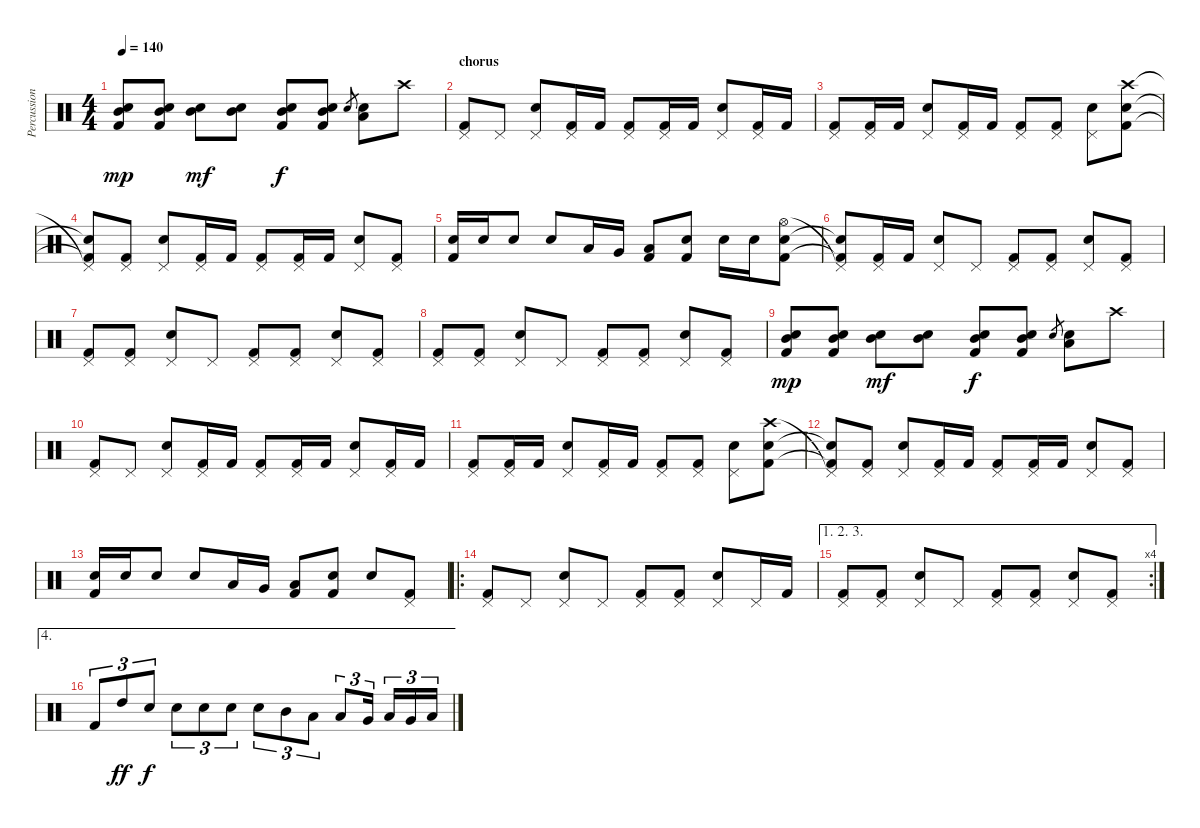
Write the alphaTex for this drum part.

\track ("Percussions" "Percussion") {instrument percussion}
\staff {score}
\articulation defaults
\ts (4 4)
\tempo 140
\clef neutral
\ks c
("Mid Tom (hit)" "Snare (hit) 2" "Kick (hit) 2").8{dy mp} ("Mid Tom (hit)" "Snare (hit) 2" "Kick (hit) 2").8 ("Mid Tom (hit)" "Snare (hit) 2").8{dy mf} ("Mid Tom (hit)" "Snare (hit) 2").8 ("Mid Tom (hit)" "Snare (hit) 2" "Kick (hit) 2").8{dy f} ("Mid Tom (hit)" "Snare (hit) 2" "Kick (hit) 2").8 "Snare (hit) 2".8{gr} ("Low Tom (hit)" "Electric Snare (hit)").8 "Crash high (hit)".8 |
\section ("" "chorus")
("Pedal Hi-Hat (hit)" "Kick (hit) 2").8 "Pedal Hi-Hat (hit)".8 ("Pedal Hi-Hat (hit)" "Snare (hit) 2").8 ("Pedal Hi-Hat (hit)" "Kick (hit) 2").16 "Kick (hit) 2".16 ("Pedal Hi-Hat (hit)" "Kick (hit) 2").8 ("Pedal Hi-Hat (hit)" "Kick (hit) 2").16 "Kick (hit) 2".16 ("Pedal Hi-Hat (hit)" "Snare (hit) 2").8 ("Pedal Hi-Hat (hit)" "Kick (hit) 2").16 "Kick (hit) 2".16 |
("Pedal Hi-Hat (hit)" "Kick (hit) 2").8 ("Pedal Hi-Hat (hit)" "Kick (hit) 2").16 "Kick (hit) 2".16 ("Pedal Hi-Hat (hit)" "Snare (hit) 2").8 ("Pedal Hi-Hat (hit)" "Kick (hit) 2").16 "Kick (hit) 2".16 ("Pedal Hi-Hat (hit)" "Kick (hit) 2").8 ("Pedal Hi-Hat (hit)" "Kick (hit) 2").8 ("Pedal Hi-Hat (hit)" "Snare (hit) 2").8 ("Crash high (hit)" "Snare (hit) 2" "Kick (hit) 2").8 |
("Pedal Hi-Hat (hit)"{t} "Snare (hit)"{t} "Kick (hit) 2"{t}).8 ("Pedal Hi-Hat (hit)" "Kick (hit) 2").8 ("Pedal Hi-Hat (hit)" "Snare (hit) 2").8 ("Pedal Hi-Hat (hit)" "Kick (hit) 2").16 "Kick (hit) 2".16 ("Pedal Hi-Hat (hit)" "Kick (hit) 2").8 ("Pedal Hi-Hat (hit)" "Kick (hit) 2").16 "Kick (hit) 2".16 ("Pedal Hi-Hat (hit)" "Snare (hit) 2").8 ("Pedal Hi-Hat (hit)" "Kick (hit) 2").8 |
("Electric Snare (hit)" "Kick (hit) 2").16 "Snare (hit) 2".16 "Electric Snare (hit)".8 "Electric Snare (hit)".8 "Low Tom (hit)".16 "Very Low Tom (hit)".16 ("Low Floor Tom (hit)" "Kick (hit) 2").8 ("Electric Snare (hit)" "Kick (hit) 2").8 "Snare (hit) 2".16 "Snare (hit) 2".16 ("Hi-Hat (open)" "Electric Snare (hit)" "Kick (hit) 2").8 |
("Pedal Hi-Hat (hit)"{t} "Snare (hit)"{t} "Kick (hit) 2"{t}).8 ("Pedal Hi-Hat (hit)" "Kick (hit) 2").16 "Kick (hit) 2".16 ("Pedal Hi-Hat (hit)" "Snare (hit) 2").8 "Pedal Hi-Hat (hit)".8 ("Pedal Hi-Hat (hit)" "Kick (hit) 2").8 ("Pedal Hi-Hat (hit)" "Kick (hit) 2").8 ("Pedal Hi-Hat (hit)" "Snare (hit) 2").8 ("Pedal Hi-Hat (hit)" "Kick (hit) 2").8 |
("Pedal Hi-Hat (hit)" "Kick (hit) 2").8 ("Pedal Hi-Hat (hit)" "Kick (hit) 2").8 ("Pedal Hi-Hat (hit)" "Snare (hit) 2").8 "Pedal Hi-Hat (hit)".8 ("Pedal Hi-Hat (hit)" "Kick (hit) 2").8 ("Pedal Hi-Hat (hit)" "Kick (hit) 2").8 ("Pedal Hi-Hat (hit)" "Snare (hit) 2").8 ("Pedal Hi-Hat (hit)" "Kick (hit) 2").8 |
("Pedal Hi-Hat (hit)" "Kick (hit) 2").8 ("Pedal Hi-Hat (hit)" "Kick (hit) 2").8 ("Pedal Hi-Hat (hit)" "Snare (hit) 2").8 "Pedal Hi-Hat (hit)".8 ("Pedal Hi-Hat (hit)" "Kick (hit) 2").8 ("Pedal Hi-Hat (hit)" "Kick (hit) 2").8 ("Pedal Hi-Hat (hit)" "Snare (hit) 2").8 ("Pedal Hi-Hat (hit)" "Kick (hit) 2").8 |
("Mid Tom (hit)" "Snare (hit) 2" "Kick (hit) 2").8{dy mp} ("Mid Tom (hit)" "Snare (hit) 2" "Kick (hit) 2").8 ("Mid Tom (hit)" "Snare (hit) 2").8{dy mf} ("Mid Tom (hit)" "Snare (hit) 2").8 ("Mid Tom (hit)" "Snare (hit) 2" "Kick (hit) 2").8{dy f} ("Mid Tom (hit)" "Snare (hit) 2" "Kick (hit) 2").8 "Snare (hit) 2".8{gr} ("Low Tom (hit)" "Electric Snare (hit)").8 "Crash high (hit)".8 |
("Pedal Hi-Hat (hit)" "Kick (hit) 2").8 "Pedal Hi-Hat (hit)".8 ("Pedal Hi-Hat (hit)" "Snare (hit) 2").8 ("Pedal Hi-Hat (hit)" "Kick (hit) 2").16 "Kick (hit) 2".16 ("Pedal Hi-Hat (hit)" "Kick (hit) 2").8 ("Pedal Hi-Hat (hit)" "Kick (hit) 2").16 "Kick (hit) 2".16 ("Pedal Hi-Hat (hit)" "Snare (hit) 2").8 ("Pedal Hi-Hat (hit)" "Kick (hit) 2").16 "Kick (hit) 2".16 |
("Pedal Hi-Hat (hit)" "Kick (hit) 2").8 ("Pedal Hi-Hat (hit)" "Kick (hit) 2").16 "Kick (hit) 2".16 ("Pedal Hi-Hat (hit)" "Snare (hit) 2").8 ("Pedal Hi-Hat (hit)" "Kick (hit) 2").16 "Kick (hit) 2".16 ("Pedal Hi-Hat (hit)" "Kick (hit) 2").8 ("Pedal Hi-Hat (hit)" "Kick (hit) 2").8 ("Pedal Hi-Hat (hit)" "Snare (hit) 2").8 ("Crash high (hit)" "Snare (hit) 2" "Kick (hit) 2").8 |
("Pedal Hi-Hat (hit)"{t} "Snare (hit)"{t} "Kick (hit) 2"{t}).8 ("Pedal Hi-Hat (hit)" "Kick (hit) 2").8 ("Pedal Hi-Hat (hit)" "Snare (hit) 2").8 ("Pedal Hi-Hat (hit)" "Kick (hit) 2").16 "Kick (hit) 2".16 ("Pedal Hi-Hat (hit)" "Kick (hit) 2").8 ("Pedal Hi-Hat (hit)" "Kick (hit) 2").16 "Kick (hit) 2".16 ("Pedal Hi-Hat (hit)" "Snare (hit) 2").8 ("Pedal Hi-Hat (hit)" "Kick (hit) 2").8 |
("Electric Snare (hit)" "Kick (hit) 2").16 "Snare (hit) 2".16 "Electric Snare (hit)".8 "Electric Snare (hit)".8 "Low Tom (hit)".16 "Very Low Tom (hit)".16 ("Low Floor Tom (hit)" "Kick (hit) 2").8 ("Electric Snare (hit)" "Kick (hit) 2").8 "Snare (hit) 2".8 ("Pedal Hi-Hat (hit)" "Kick (hit) 2").8 |
\ro
("Pedal Hi-Hat (hit)" "Kick (hit) 2").8 "Pedal Hi-Hat (hit)".8 ("Pedal Hi-Hat (hit)" "Snare (hit) 2").8 "Pedal Hi-Hat (hit)".8 ("Pedal Hi-Hat (hit)" "Kick (hit) 2").8 ("Pedal Hi-Hat (hit)" "Kick (hit) 2").8 ("Pedal Hi-Hat (hit)" "Snare (hit) 2").8 "Pedal Hi-Hat (hit)".16 "Kick (hit) 2".16 |
\ae (1 2 3)
\rc 4
("Pedal Hi-Hat (hit)" "Kick (hit) 2").8 ("Pedal Hi-Hat (hit)" "Kick (hit) 2").8 ("Pedal Hi-Hat (hit)" "Snare (hit) 2").8 "Pedal Hi-Hat (hit)".8 ("Pedal Hi-Hat (hit)" "Kick (hit) 2").8 ("Pedal Hi-Hat (hit)" "Kick (hit) 2").8 ("Pedal Hi-Hat (hit)" "Snare (hit) 2").8 ("Pedal Hi-Hat (hit)" "Kick (hit) 2").8 |
\ae 4 "Kick (hit) 2".8{tu (3 2)} "High Tom (hit)".8{tu (3 2) dy ff} "Snare (hit) 2".8{tu (3 2) dy f} "Electric Snare (hit)".8{tu (3 2)} "Snare (hit) 2".8{tu (3 2)} "Electric Snare (hit)".8{tu (3 2)} "Snare (hit) 2".8{tu (3 2)} "Mid Tom (hit)".8{tu (3 2)} "Low Tom (hit)".8{tu (3 2)} "Low Tom (hit)".8{tu (3 2)} "Very Low Tom (hit)".16{tu (3 2)} "Low Floor Tom (hit)".16{tu (3 2)} "Very Low Tom (hit)".16{tu (3 2)} "Low Floor Tom (hit)".16{tu (3 2)}
